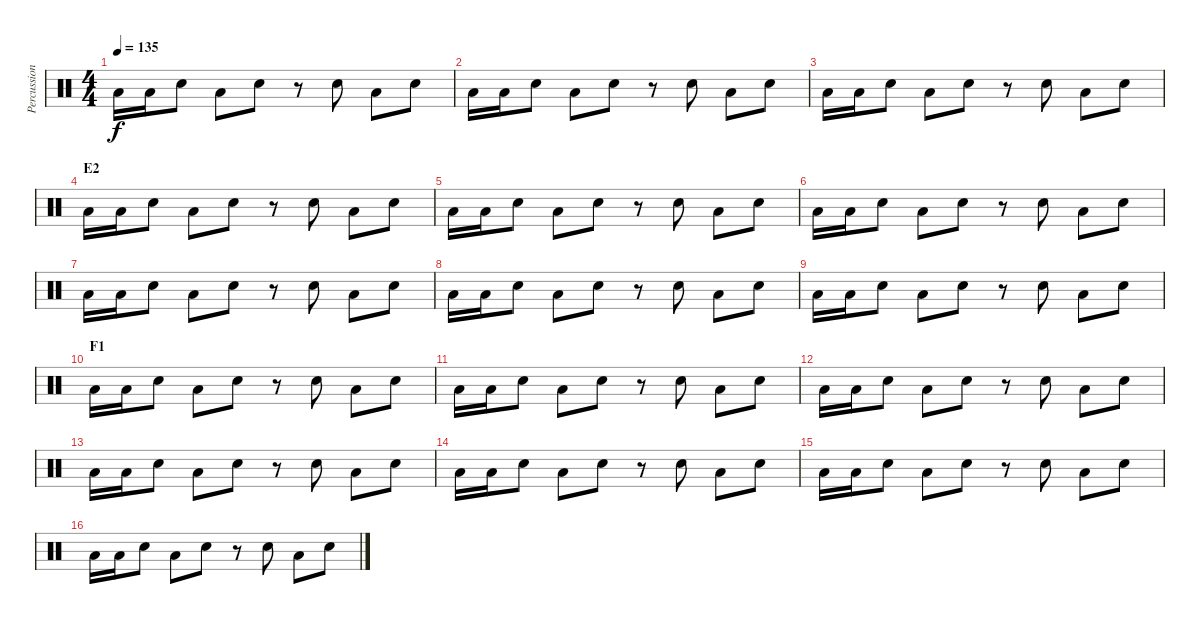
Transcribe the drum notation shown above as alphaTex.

\track ("Percussion" "Percussion") {instrument percussion}
\staff {score}
\articulation defaults
\ts (4 4)
\tempo 135
\clef neutral
\ks c "Low Floor Tom (hit)".16{dy f} "Low Floor Tom (hit)".16 "Electric Snare (hit)".8 "Low Floor Tom (hit)".8 "Electric Snare (hit)".8
r.8 "Electric Snare (hit)".8 "Low Floor Tom (hit)".8 "Electric Snare (hit)".8 |
"Low Floor Tom (hit)".16 "Low Floor Tom (hit)".16 "Electric Snare (hit)".8 "Low Floor Tom (hit)".8 "Electric Snare (hit)".8 r.8 "Electric Snare (hit)".8 "Low Floor Tom (hit)".8 "Electric Snare (hit)".8 |
"Low Floor Tom (hit)".16 "Low Floor Tom (hit)".16 "Electric Snare (hit)".8 "Low Floor Tom (hit)".8 "Electric Snare (hit)".8 r.8 "Electric Snare (hit)".8 "Low Floor Tom (hit)".8 "Electric Snare (hit)".8 |
\section ("" "E2")
"Low Floor Tom (hit)".16 "Low Floor Tom (hit)".16 "Electric Snare (hit)".8 "Low Floor Tom (hit)".8 "Electric Snare (hit)".8 r.8 "Electric Snare (hit)".8 "Low Floor Tom (hit)".8 "Electric Snare (hit)".8 |
"Low Floor Tom (hit)".16 "Low Floor Tom (hit)".16 "Electric Snare (hit)".8 "Low Floor Tom (hit)".8 "Electric Snare (hit)".8 r.8 "Electric Snare (hit)".8 "Low Floor Tom (hit)".8 "Electric Snare (hit)".8 |
"Low Floor Tom (hit)".16 "Low Floor Tom (hit)".16 "Electric Snare (hit)".8 "Low Floor Tom (hit)".8 "Electric Snare (hit)".8 r.8 "Electric Snare (hit)".8 "Low Floor Tom (hit)".8 "Electric Snare (hit)".8 |
"Low Floor Tom (hit)".16 "Low Floor Tom (hit)".16 "Electric Snare (hit)".8 "Low Floor Tom (hit)".8 "Electric Snare (hit)".8 r.8 "Electric Snare (hit)".8 "Low Floor Tom (hit)".8 "Electric Snare (hit)".8 |
"Low Floor Tom (hit)".16 "Low Floor Tom (hit)".16 "Electric Snare (hit)".8 "Low Floor Tom (hit)".8 "Electric Snare (hit)".8 r.8 "Electric Snare (hit)".8 "Low Floor Tom (hit)".8 "Electric Snare (hit)".8 |
"Low Floor Tom (hit)".16 "Low Floor Tom (hit)".16 "Electric Snare (hit)".8 "Low Floor Tom (hit)".8 "Electric Snare (hit)".8 r.8 "Electric Snare (hit)".8 "Low Floor Tom (hit)".8 "Electric Snare (hit)".8 |
\section ("" "F1")
"Low Floor Tom (hit)".16 "Low Floor Tom (hit)".16 "Electric Snare (hit)".8 "Low Floor Tom (hit)".8 "Electric Snare (hit)".8 r.8 "Electric Snare (hit)".8 "Low Floor Tom (hit)".8 "Electric Snare (hit)".8 |
"Low Floor Tom (hit)".16 "Low Floor Tom (hit)".16 "Electric Snare (hit)".8 "Low Floor Tom (hit)".8 "Electric Snare (hit)".8 r.8 "Electric Snare (hit)".8 "Low Floor Tom (hit)".8 "Electric Snare (hit)".8 |
"Low Floor Tom (hit)".16 "Low Floor Tom (hit)".16 "Electric Snare (hit)".8 "Low Floor Tom (hit)".8 "Electric Snare (hit)".8 r.8 "Electric Snare (hit)".8 "Low Floor Tom (hit)".8 "Electric Snare (hit)".8 |
"Low Floor Tom (hit)".16 "Low Floor Tom (hit)".16 "Electric Snare (hit)".8 "Low Floor Tom (hit)".8 "Electric Snare (hit)".8 r.8 "Electric Snare (hit)".8 "Low Floor Tom (hit)".8 "Electric Snare (hit)".8 |
"Low Floor Tom (hit)".16 "Low Floor Tom (hit)".16 "Electric Snare (hit)".8 "Low Floor Tom (hit)".8 "Electric Snare (hit)".8 r.8 "Electric Snare (hit)".8 "Low Floor Tom (hit)".8 "Electric Snare (hit)".8 |
"Low Floor Tom (hit)".16 "Low Floor Tom (hit)".16 "Electric Snare (hit)".8 "Low Floor Tom (hit)".8 "Electric Snare (hit)".8 r.8 "Electric Snare (hit)".8 "Low Floor Tom (hit)".8 "Electric Snare (hit)".8 |
"Low Floor Tom (hit)".16 "Low Floor Tom (hit)".16 "Electric Snare (hit)".8 "Low Floor Tom (hit)".8 "Electric Snare (hit)".8 r.8 "Electric Snare (hit)".8 "Low Floor Tom (hit)".8 "Electric Snare (hit)".8
